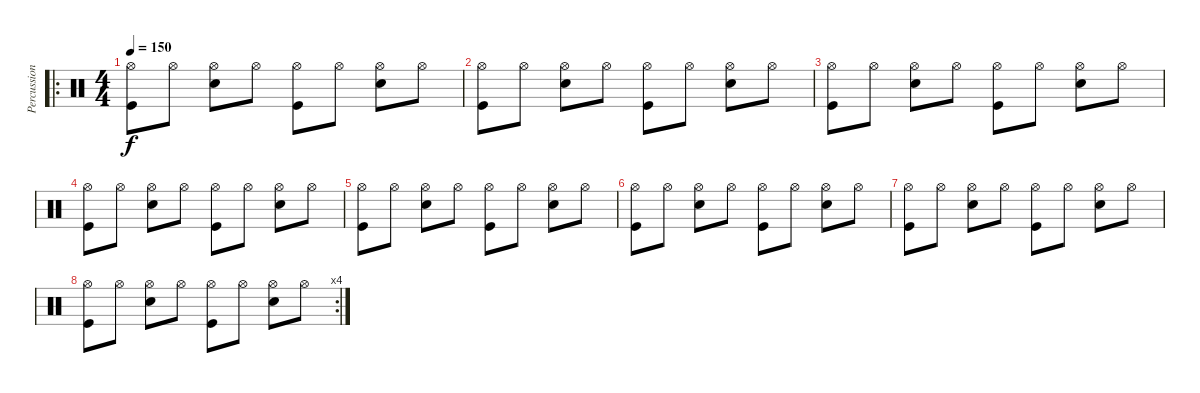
\track ("Percussion" "Percussion") {instrument percussion}
\staff {score}
\articulation defaults
\ro
\ts (4 4)
\tempo 150
\clef neutral
\ks c
("Hi-Hat (open)" "Kick (hit)").8{dy f} "Hi-Hat (open)".8 ("Hi-Hat (open)" "Electric Snare (hit)").8 "Hi-Hat (open)".8 ("Hi-Hat (open)" "Kick (hit)").8 "Hi-Hat (open)".8 ("Hi-Hat (open)" "Electric Snare (hit)").8 "Hi-Hat (open)".8 |
("Hi-Hat (open)" "Kick (hit)").8 "Hi-Hat (open)".8 ("Hi-Hat (open)" "Electric Snare (hit)").8 "Hi-Hat (open)".8 ("Hi-Hat (open)" "Kick (hit)").8 "Hi-Hat (open)".8 ("Hi-Hat (open)" "Electric Snare (hit)").8 "Hi-Hat (open)".8 |
("Hi-Hat (open)" "Kick (hit)").8 "Hi-Hat (open)".8 ("Hi-Hat (open)" "Electric Snare (hit)").8 "Hi-Hat (open)".8 ("Hi-Hat (open)" "Kick (hit)").8 "Hi-Hat (open)".8 ("Hi-Hat (open)" "Electric Snare (hit)").8 "Hi-Hat (open)".8 |
("Hi-Hat (open)" "Kick (hit)").8 "Hi-Hat (open)".8 ("Hi-Hat (open)" "Electric Snare (hit)").8 "Hi-Hat (open)".8 ("Hi-Hat (open)" "Kick (hit)").8 "Hi-Hat (open)".8 ("Hi-Hat (open)" "Electric Snare (hit)").8 "Hi-Hat (open)".8 |
("Hi-Hat (open)" "Kick (hit)").8 "Hi-Hat (open)".8 ("Hi-Hat (open)" "Electric Snare (hit)").8 "Hi-Hat (open)".8 ("Hi-Hat (open)" "Kick (hit)").8 "Hi-Hat (open)".8 ("Hi-Hat (open)" "Electric Snare (hit)").8 "Hi-Hat (open)".8 |
("Hi-Hat (open)" "Kick (hit)").8 "Hi-Hat (open)".8 ("Hi-Hat (open)" "Electric Snare (hit)").8 "Hi-Hat (open)".8 ("Hi-Hat (open)" "Kick (hit)").8 "Hi-Hat (open)".8 ("Hi-Hat (open)" "Electric Snare (hit)").8 "Hi-Hat (open)".8 |
("Hi-Hat (open)" "Kick (hit)").8 "Hi-Hat (open)".8 ("Hi-Hat (open)" "Electric Snare (hit)").8 "Hi-Hat (open)".8 ("Hi-Hat (open)" "Kick (hit)").8 "Hi-Hat (open)".8 ("Hi-Hat (open)" "Electric Snare (hit)").8 "Hi-Hat (open)".8 |
\rc 4
("Hi-Hat (open)" "Kick (hit)").8 "Hi-Hat (open)".8 ("Hi-Hat (open)" "Electric Snare (hit)").8 "Hi-Hat (open)".8 ("Hi-Hat (open)" "Kick (hit)").8 "Hi-Hat (open)".8 ("Hi-Hat (open)" "Electric Snare (hit)").8 "Hi-Hat (open)".8
